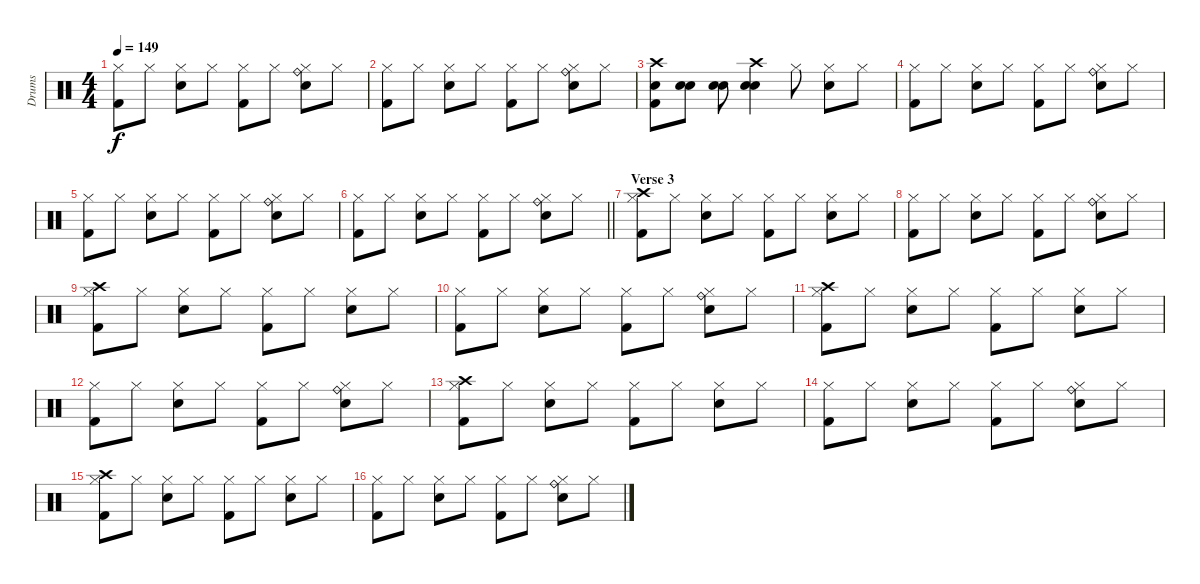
\track ("Drums" "Drums") {instrument percussion}
\staff {score}
\articulation defaults
\ts (4 4)
\tempo 149
\clef neutral
\ks c
("Hi-Hat (closed)" "Kick (hit) 2").8{dy f} "Hi-Hat (closed)".8 ("Hi-Hat (closed)" "Electric Snare (hit)").8 "Hi-Hat (closed)".8 ("Hi-Hat (closed)" "Kick (hit) 2").8 "Hi-Hat (closed)".8 ("Ride (bell)" "Hi-Hat (closed)" "Electric Snare (hit)").8 "Hi-Hat (closed)".8 |
("Hi-Hat (closed)" "Kick (hit) 2").8 "Hi-Hat (closed)".8 ("Hi-Hat (closed)" "Electric Snare (hit)").8 "Hi-Hat (closed)".8 ("Hi-Hat (closed)" "Kick (hit) 2").8 "Hi-Hat (closed)".8 ("Ride (bell)" "Hi-Hat (closed)" "Electric Snare (hit)").8 "Hi-Hat (closed)".8 |
("Electric Snare (hit)" "Crash high (hit)" "Kick (hit) 2").8 ("Electric Snare (hit)" "Electric Snare (hit)").8 ("Electric Snare (hit)" "Electric Snare (hit)").8 ("Electric Snare (hit)" "Electric Snare (hit)" "Crash high (hit)").4 "Hi-Hat (closed)".8 ("Hi-Hat (closed)" "Electric Snare (hit)").8 "Hi-Hat (closed)".8 |
("Hi-Hat (closed)" "Kick (hit) 2").8 "Hi-Hat (closed)".8 ("Hi-Hat (closed)" "Electric Snare (hit)").8 "Hi-Hat (closed)".8 ("Hi-Hat (closed)" "Kick (hit) 2").8 "Hi-Hat (closed)".8 ("Ride (bell)" "Hi-Hat (closed)" "Electric Snare (hit)").8 "Hi-Hat (closed)".8 |
("Hi-Hat (closed)" "Kick (hit) 2").8 "Hi-Hat (closed)".8 ("Hi-Hat (closed)" "Electric Snare (hit)").8 "Hi-Hat (closed)".8 ("Hi-Hat (closed)" "Kick (hit) 2").8 "Hi-Hat (closed)".8 ("Ride (bell)" "Hi-Hat (closed)" "Electric Snare (hit)").8 "Hi-Hat (closed)".8 |
\barLineRight lightlight
("Hi-Hat (closed)" "Kick (hit) 2").8 "Hi-Hat (closed)".8 ("Hi-Hat (closed)" "Electric Snare (hit)").8 "Hi-Hat (closed)".8 ("Hi-Hat (closed)" "Kick (hit) 2").8 "Hi-Hat (closed)".8 ("Ride (bell)" "Hi-Hat (closed)" "Electric Snare (hit)").8 "Hi-Hat (closed)".8 |
\section ("" " Verse 3")
("Hi-Hat (closed)" "Crash high (hit)" "Kick (hit) 2").8 "Hi-Hat (closed)".8 ("Hi-Hat (closed)" "Electric Snare (hit)").8 "Hi-Hat (closed)".8 ("Hi-Hat (closed)" "Kick (hit) 2").8 "Hi-Hat (closed)".8 ("Hi-Hat (closed)" "Electric Snare (hit)").8 "Hi-Hat (closed)".8 |
("Hi-Hat (closed)" "Kick (hit) 2").8 "Hi-Hat (closed)".8 ("Hi-Hat (closed)" "Electric Snare (hit)").8 "Hi-Hat (closed)".8 ("Hi-Hat (closed)" "Kick (hit) 2").8 "Hi-Hat (closed)".8 ("Ride (bell)" "Hi-Hat (closed)" "Electric Snare (hit)").8 "Hi-Hat (closed)".8 |
("Hi-Hat (closed)" "Crash high (hit)" "Kick (hit) 2").8 "Hi-Hat (closed)".8 ("Hi-Hat (closed)" "Electric Snare (hit)").8 "Hi-Hat (closed)".8 ("Hi-Hat (closed)" "Kick (hit) 2").8 "Hi-Hat (closed)".8 ("Hi-Hat (closed)" "Electric Snare (hit)").8 "Hi-Hat (closed)".8 |
("Hi-Hat (closed)" "Kick (hit) 2").8 "Hi-Hat (closed)".8 ("Hi-Hat (closed)" "Electric Snare (hit)").8 "Hi-Hat (closed)".8 ("Hi-Hat (closed)" "Kick (hit) 2").8 "Hi-Hat (closed)".8 ("Ride (bell)" "Hi-Hat (closed)" "Electric Snare (hit)").8 "Hi-Hat (closed)".8 |
("Hi-Hat (closed)" "Crash high (hit)" "Kick (hit) 2").8 "Hi-Hat (closed)".8 ("Hi-Hat (closed)" "Electric Snare (hit)").8 "Hi-Hat (closed)".8 ("Hi-Hat (closed)" "Kick (hit) 2").8 "Hi-Hat (closed)".8 ("Hi-Hat (closed)" "Electric Snare (hit)").8 "Hi-Hat (closed)".8 |
("Hi-Hat (closed)" "Kick (hit) 2").8 "Hi-Hat (closed)".8 ("Hi-Hat (closed)" "Electric Snare (hit)").8 "Hi-Hat (closed)".8 ("Hi-Hat (closed)" "Kick (hit) 2").8 "Hi-Hat (closed)".8 ("Ride (bell)" "Hi-Hat (closed)" "Electric Snare (hit)").8 "Hi-Hat (closed)".8 |
("Hi-Hat (closed)" "Crash high (hit)" "Kick (hit) 2").8 "Hi-Hat (closed)".8 ("Hi-Hat (closed)" "Electric Snare (hit)").8 "Hi-Hat (closed)".8 ("Hi-Hat (closed)" "Kick (hit) 2").8 "Hi-Hat (closed)".8 ("Hi-Hat (closed)" "Electric Snare (hit)").8 "Hi-Hat (closed)".8 |
("Hi-Hat (closed)" "Kick (hit) 2").8 "Hi-Hat (closed)".8 ("Hi-Hat (closed)" "Electric Snare (hit)").8 "Hi-Hat (closed)".8 ("Hi-Hat (closed)" "Kick (hit) 2").8 "Hi-Hat (closed)".8 ("Ride (bell)" "Hi-Hat (closed)" "Electric Snare (hit)").8 "Hi-Hat (closed)".8 |
("Hi-Hat (closed)" "Crash high (hit)" "Kick (hit) 2").8 "Hi-Hat (closed)".8 ("Hi-Hat (closed)" "Electric Snare (hit)").8 "Hi-Hat (closed)".8 ("Hi-Hat (closed)" "Kick (hit) 2").8 "Hi-Hat (closed)".8 ("Hi-Hat (closed)" "Electric Snare (hit)").8 "Hi-Hat (closed)".8 |
("Hi-Hat (closed)" "Kick (hit) 2").8 "Hi-Hat (closed)".8 ("Hi-Hat (closed)" "Electric Snare (hit)").8 "Hi-Hat (closed)".8 ("Hi-Hat (closed)" "Kick (hit) 2").8 "Hi-Hat (closed)".8 ("Ride (bell)" "Hi-Hat (closed)" "Electric Snare (hit)").8 "Hi-Hat (closed)".8
